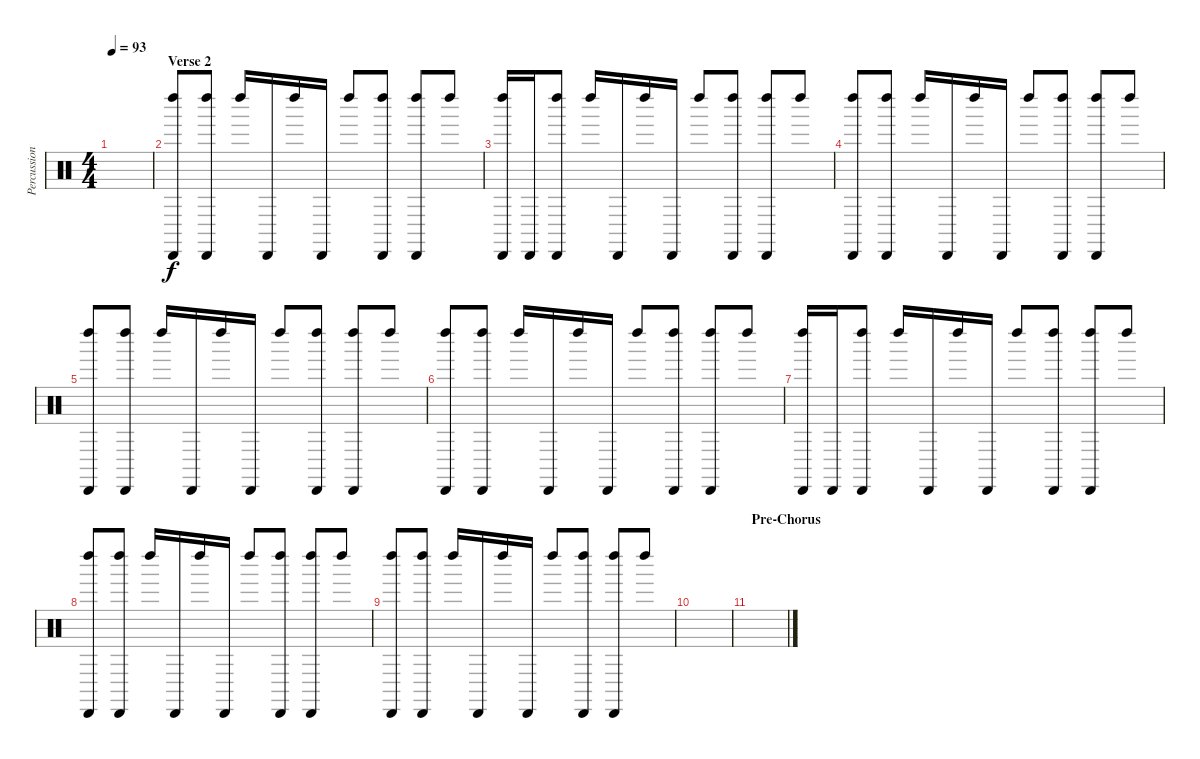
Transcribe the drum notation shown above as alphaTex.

\track ("Percussion" "Percussion") {instrument percussion}
\staff {score}
\articulation defaults
\ts (4 4)
\tempo 93
\clef neutral
\ks c
|
\section ("" "Verse 2")
("Left Maraca (hit)" "Cabasa (hit)").8 ("Left Maraca (hit)" "Cabasa (hit)").8 "Left Maraca (hit)".16 "Cabasa (hit)".16 "Left Maraca (hit)".16 "Cabasa (hit)".16 "Left Maraca (hit)".8 ("Left Maraca (hit)" "Cabasa (hit)").8 ("Left Maraca (hit)" "Cabasa (hit)").8 "Left Maraca (hit)".8 |
("Left Maraca (hit)" "Cabasa (hit)").16 "Cabasa (hit)".16 ("Left Maraca (hit)" "Cabasa (hit)").8 "Left Maraca (hit)".16 "Cabasa (hit)".16 "Left Maraca (hit)".16 "Cabasa (hit)".16 "Left Maraca (hit)".8 ("Left Maraca (hit)" "Cabasa (hit)").8 ("Left Maraca (hit)" "Cabasa (hit)").8 "Left Maraca (hit)".8 |
("Left Maraca (hit)" "Cabasa (hit)").8 ("Left Maraca (hit)" "Cabasa (hit)").8 "Left Maraca (hit)".16 "Cabasa (hit)".16 "Left Maraca (hit)".16 "Cabasa (hit)".16 "Left Maraca (hit)".8 ("Left Maraca (hit)" "Cabasa (hit)").8 ("Left Maraca (hit)" "Cabasa (hit)").8 "Left Maraca (hit)".8 |
("Left Maraca (hit)" "Cabasa (hit)").8 ("Left Maraca (hit)" "Cabasa (hit)").8 "Left Maraca (hit)".16 "Cabasa (hit)".16 "Left Maraca (hit)".16 "Cabasa (hit)".16 "Left Maraca (hit)".8 ("Left Maraca (hit)" "Cabasa (hit)").8 ("Left Maraca (hit)" "Cabasa (hit)").8 "Left Maraca (hit)".8 |
("Left Maraca (hit)" "Cabasa (hit)").8 ("Left Maraca (hit)" "Cabasa (hit)").8 "Left Maraca (hit)".16 "Cabasa (hit)".16 "Left Maraca (hit)".16 "Cabasa (hit)".16 "Left Maraca (hit)".8 ("Left Maraca (hit)" "Cabasa (hit)").8 ("Left Maraca (hit)" "Cabasa (hit)").8 "Left Maraca (hit)".8 |
("Left Maraca (hit)" "Cabasa (hit)").16 "Cabasa (hit)".16 ("Left Maraca (hit)" "Cabasa (hit)").8 "Left Maraca (hit)".16 "Cabasa (hit)".16 "Left Maraca (hit)".16 "Cabasa (hit)".16 "Left Maraca (hit)".8 ("Left Maraca (hit)" "Cabasa (hit)").8 ("Left Maraca (hit)" "Cabasa (hit)").8 "Left Maraca (hit)".8 |
("Left Maraca (hit)" "Cabasa (hit)").8 ("Left Maraca (hit)" "Cabasa (hit)").8 "Left Maraca (hit)".16 "Cabasa (hit)".16 "Left Maraca (hit)".16 "Cabasa (hit)".16 "Left Maraca (hit)".8 ("Left Maraca (hit)" "Cabasa (hit)").8 ("Left Maraca (hit)" "Cabasa (hit)").8 "Left Maraca (hit)".8 |
("Left Maraca (hit)" "Cabasa (hit)").8 ("Left Maraca (hit)" "Cabasa (hit)").8 "Left Maraca (hit)".16 "Cabasa (hit)".16 "Left Maraca (hit)".16 "Cabasa (hit)".16 "Left Maraca (hit)".8 ("Left Maraca (hit)" "Cabasa (hit)").8 ("Left Maraca (hit)" "Cabasa (hit)").8 "Left Maraca (hit)".8 |
|
\section ("" "Pre-Chorus")
